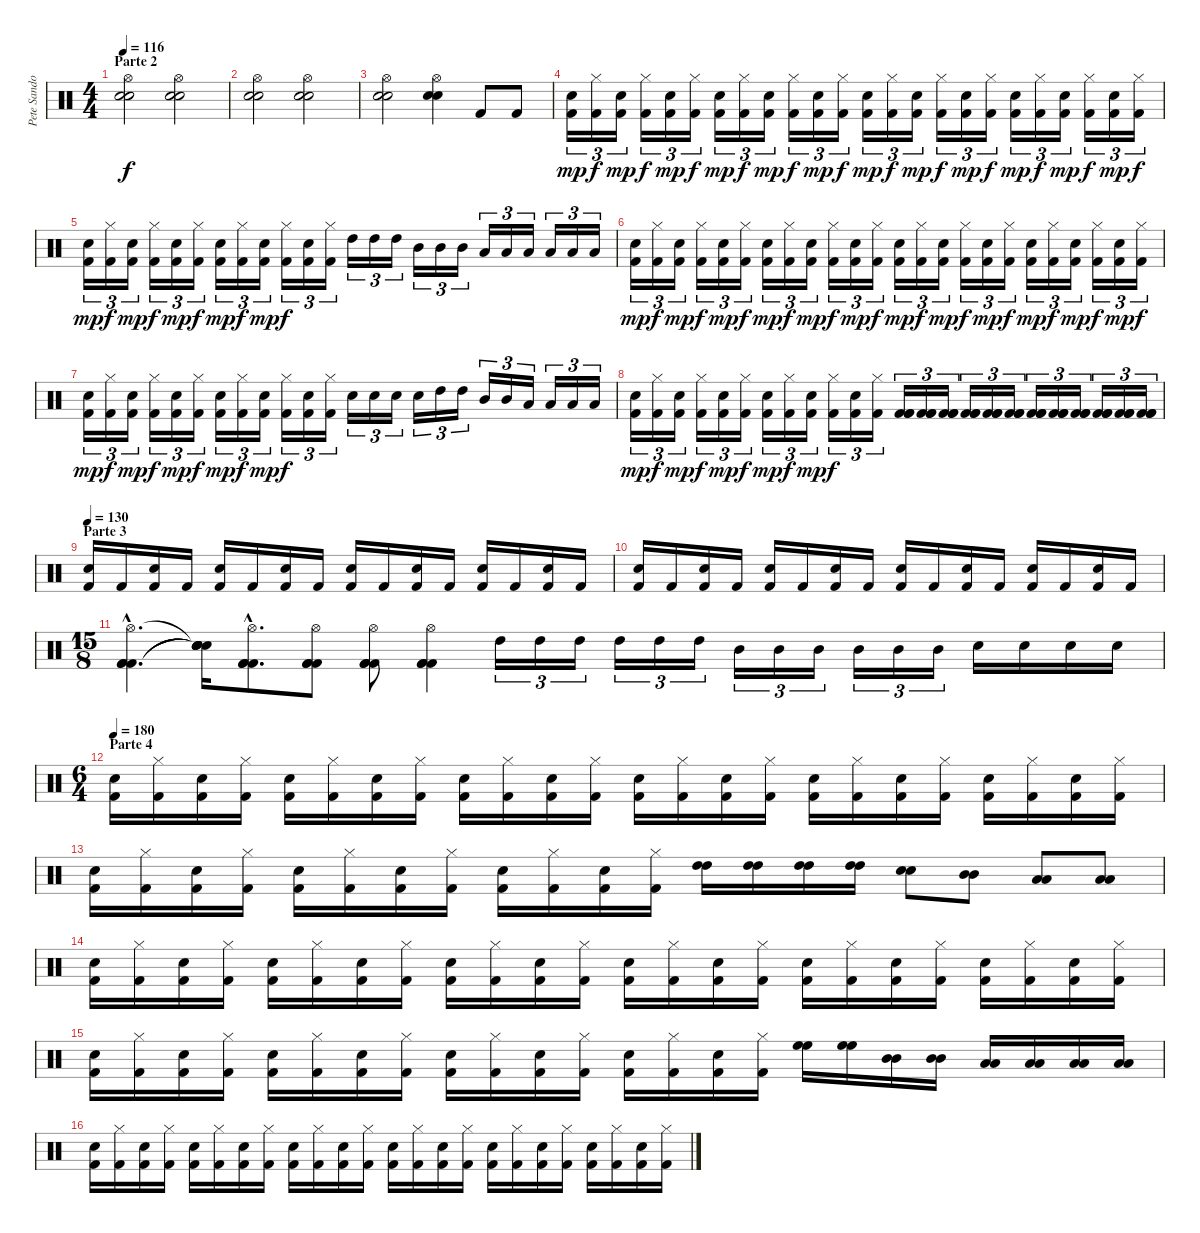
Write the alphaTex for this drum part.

\track ("Pete Sandoval" "Pete Sando") {instrument percussion}
\staff {score}
\articulation defaults
\ts (4 4)
\section ("" "Parte 2")
\tempo 116
\clef neutral
\ks c
("Hi-Hat (open)" "Electric Snare (hit)" "Electric Snare (hit)").2{dy f} ("Hi-Hat (open)" "Electric Snare (hit)" "Electric Snare (hit)").2 |
("Hi-Hat (open)" "Electric Snare (hit)" "Electric Snare (hit)").2 ("Hi-Hat (open)" "Electric Snare (hit)" "Electric Snare (hit)").2 |
("Hi-Hat (open)" "Electric Snare (hit)" "Electric Snare (hit)").2 ("Hi-Hat (open)" "Electric Snare (hit)" "Electric Snare (hit)").4 "Kick (hit) 2".8 "Kick (hit) 2".8 |
("Snare (hit) 2" "Kick (hit) 2").16{tu (3 2) dy mp} ("Hi-Hat (closed)" "Kick (hit) 2").16{tu (3 2) dy f} ("Snare (hit) 2" "Kick (hit) 2").16{tu (3 2) dy mp} ("Hi-Hat (closed)" "Kick (hit) 2").16{tu (3 2) dy f} ("Snare (hit) 2" "Kick (hit) 2").16{tu (3 2) dy mp} ("Hi-Hat (closed)" "Kick (hit) 2").16{tu (3 2) dy f} ("Snare (hit) 2" "Kick (hit) 2").16{tu (3 2) dy mp} ("Hi-Hat (closed)" "Kick (hit) 2").16{tu (3 2) dy f} ("Snare (hit) 2" "Kick (hit) 2").16{tu (3 2) dy mp} ("Hi-Hat (closed)" "Kick (hit) 2").16{tu (3 2) dy f} ("Snare (hit) 2" "Kick (hit) 2").16{tu (3 2) dy mp} ("Hi-Hat (closed)" "Kick (hit) 2").16{tu (3 2) dy f} ("Snare (hit) 2" "Kick (hit) 2").16{tu (3 2) dy mp} ("Hi-Hat (closed)" "Kick (hit) 2").16{tu (3 2) dy f} ("Snare (hit) 2" "Kick (hit) 2").16{tu (3 2) dy mp} ("Hi-Hat (closed)" "Kick (hit) 2").16{tu (3 2) dy f} ("Snare (hit) 2" "Kick (hit) 2").16{tu (3 2) dy mp} ("Hi-Hat (closed)" "Kick (hit) 2").16{tu (3 2) dy f} ("Snare (hit) 2" "Kick (hit) 2").16{tu (3 2) dy mp} ("Hi-Hat (closed)" "Kick (hit) 2").16{tu (3 2) dy f} ("Snare (hit) 2" "Kick (hit) 2").16{tu (3 2) dy mp} ("Hi-Hat (closed)" "Kick (hit) 2").16{tu (3 2) dy f} ("Snare (hit) 2" "Kick (hit) 2").16{tu (3 2) dy mp} ("Hi-Hat (closed)" "Kick (hit) 2").16{tu (3 2) dy f} |
("Snare (hit) 2" "Kick (hit) 2").16{tu (3 2) dy mp} ("Hi-Hat (closed)" "Kick (hit) 2").16{tu (3 2) dy f} ("Snare (hit) 2" "Kick (hit) 2").16{tu (3 2) dy mp} ("Hi-Hat (closed)" "Kick (hit) 2").16{tu (3 2) dy f} ("Snare (hit) 2" "Kick (hit) 2").16{tu (3 2) dy mp} ("Hi-Hat (closed)" "Kick (hit) 2").16{tu (3 2) dy f} ("Snare (hit) 2" "Kick (hit) 2").16{tu (3 2) dy mp} ("Hi-Hat (closed)" "Kick (hit) 2").16{tu (3 2) dy f} ("Snare (hit) 2" "Kick (hit) 2").16{tu (3 2) dy mp} ("Hi-Hat (closed)" "Kick (hit) 2").16{tu (3 2) dy f} ("Snare (hit) 2" "Kick (hit) 2").16{tu (3 2)} ("Hi-Hat (closed)" "Kick (hit) 2").16{tu (3 2)} "High Tom (hit)".16{tu (3 2)} "High Tom (hit)".16{tu (3 2)} "High Tom (hit)".16{tu (3 2)} "Mid Tom (hit)".16{tu (3 2)} "Mid Tom (hit)".16{tu (3 2)} "Mid Tom (hit)".16{tu (3 2)} "Low Tom (hit)".16{tu (3 2)} "Low Tom (hit)".16{tu (3 2)} "Low Tom (hit)".16{tu (3 2)} "Low Floor Tom (hit)".16{tu (3 2)} "Low Floor Tom (hit)".16{tu (3 2)} "Low Floor Tom (hit)".16{tu (3 2)} |
("Snare (hit) 2" "Kick (hit) 2").16{tu (3 2) dy mp} ("Hi-Hat (closed)" "Kick (hit) 2").16{tu (3 2) dy f} ("Snare (hit) 2" "Kick (hit) 2").16{tu (3 2) dy mp} ("Hi-Hat (closed)" "Kick (hit) 2").16{tu (3 2) dy f} ("Snare (hit) 2" "Kick (hit) 2").16{tu (3 2) dy mp} ("Hi-Hat (closed)" "Kick (hit) 2").16{tu (3 2) dy f} ("Snare (hit) 2" "Kick (hit) 2").16{tu (3 2) dy mp} ("Hi-Hat (closed)" "Kick (hit) 2").16{tu (3 2) dy f} ("Snare (hit) 2" "Kick (hit) 2").16{tu (3 2) dy mp} ("Hi-Hat (closed)" "Kick (hit) 2").16{tu (3 2) dy f} ("Snare (hit) 2" "Kick (hit) 2").16{tu (3 2) dy mp} ("Hi-Hat (closed)" "Kick (hit) 2").16{tu (3 2) dy f} ("Snare (hit) 2" "Kick (hit) 2").16{tu (3 2) dy mp} ("Hi-Hat (closed)" "Kick (hit) 2").16{tu (3 2) dy f} ("Snare (hit) 2" "Kick (hit) 2").16{tu (3 2) dy mp} ("Hi-Hat (closed)" "Kick (hit) 2").16{tu (3 2) dy f} ("Snare (hit) 2" "Kick (hit) 2").16{tu (3 2) dy mp} ("Hi-Hat (closed)" "Kick (hit) 2").16{tu (3 2) dy f} ("Snare (hit) 2" "Kick (hit) 2").16{tu (3 2) dy mp} ("Hi-Hat (closed)" "Kick (hit) 2").16{tu (3 2) dy f} ("Snare (hit) 2" "Kick (hit) 2").16{tu (3 2) dy mp} ("Hi-Hat (closed)" "Kick (hit) 2").16{tu (3 2) dy f} ("Snare (hit) 2" "Kick (hit) 2").16{tu (3 2) dy mp} ("Hi-Hat (closed)" "Kick (hit) 2").16{tu (3 2) dy f} |
("Snare (hit) 2" "Kick (hit) 2").16{tu (3 2) dy mp} ("Hi-Hat (closed)" "Kick (hit) 2").16{tu (3 2) dy f} ("Snare (hit) 2" "Kick (hit) 2").16{tu (3 2) dy mp} ("Hi-Hat (closed)" "Kick (hit) 2").16{tu (3 2) dy f} ("Snare (hit) 2" "Kick (hit) 2").16{tu (3 2) dy mp} ("Hi-Hat (closed)" "Kick (hit) 2").16{tu (3 2) dy f} ("Snare (hit) 2" "Kick (hit) 2").16{tu (3 2) dy mp} ("Hi-Hat (closed)" "Kick (hit) 2").16{tu (3 2) dy f} ("Snare (hit) 2" "Kick (hit) 2").16{tu (3 2) dy mp} ("Hi-Hat (closed)" "Kick (hit) 2").16{tu (3 2) dy f} ("Snare (hit) 2" "Kick (hit) 2").16{tu (3 2)} ("Hi-Hat (closed)" "Kick (hit) 2").16{tu (3 2)} "Electric Snare (hit)".16{tu (3 2)} "Electric Snare (hit)".16{tu (3 2)} "Electric Snare (hit)".16{tu (3 2)} "Electric Snare (hit)".16{tu (3 2)} "High Tom (hit)".16{tu (3 2)} "High Tom (hit)".16{tu (3 2)} "Mid Tom (hit)".16{tu (3 2)} "Mid Tom (hit)".16{tu (3 2)} "Low Tom (hit)".16{tu (3 2)} "Low Tom (hit)".16{tu (3 2)} "Low Floor Tom (hit)".16{tu (3 2)} "Low Floor Tom (hit)".16{tu (3 2)} |
("Snare (hit) 2" "Kick (hit) 2").16{tu (3 2) dy mp} ("Hi-Hat (closed)" "Kick (hit) 2").16{tu (3 2) dy f} ("Snare (hit) 2" "Kick (hit) 2").16{tu (3 2) dy mp} ("Hi-Hat (closed)" "Kick (hit) 2").16{tu (3 2) dy f} ("Snare (hit) 2" "Kick (hit) 2").16{tu (3 2) dy mp} ("Hi-Hat (closed)" "Kick (hit) 2").16{tu (3 2) dy f} ("Snare (hit) 2" "Kick (hit) 2").16{tu (3 2) dy mp} ("Hi-Hat (closed)" "Kick (hit) 2").16{tu (3 2) dy f} ("Snare (hit) 2" "Kick (hit) 2").16{tu (3 2) dy mp} ("Hi-Hat (closed)" "Kick (hit) 2").16{tu (3 2) dy f} ("Snare (hit) 2" "Kick (hit) 2").16{tu (3 2)} ("Hi-Hat (closed)" "Kick (hit) 2").16{tu (3 2)} ("Kick (hit) 2" "Kick (hit) 2" "Kick (hit) 2").16{tu (3 2)} ("Kick (hit) 2" "Kick (hit) 2" "Kick (hit) 2").16{tu (3 2)} ("Kick (hit) 2" "Kick (hit) 2" "Kick (hit) 2").16{tu (3 2)} ("Kick (hit) 2" "Kick (hit) 2" "Kick (hit) 2").16{tu (3 2)} ("Kick (hit) 2" "Kick (hit) 2" "Kick (hit) 2").16{tu (3 2)} ("Kick (hit) 2" "Kick (hit) 2" "Kick (hit) 2").16{tu (3 2)} ("Kick (hit) 2" "Kick (hit) 2" "Kick (hit) 2").16{tu (3 2)} ("Kick (hit) 2" "Kick (hit) 2" "Kick (hit) 2").16{tu (3 2)} ("Kick (hit) 2" "Kick (hit) 2" "Kick (hit) 2").16{tu (3 2)} ("Kick (hit) 2" "Kick (hit) 2" "Kick (hit) 2").16{tu (3 2)} ("Kick (hit) 2" "Kick (hit) 2" "Kick (hit) 2").16{tu (3 2)} ("Kick (hit) 2" "Kick (hit) 2" "Kick (hit) 2").16{tu (3 2)} |
\section ("" "Parte 3")
\tempo 130
("Electric Snare (hit)" "Kick (hit) 2").16 "Kick (hit) 2".16 ("Electric Snare (hit)" "Kick (hit) 2").16 "Kick (hit) 2".16 ("Electric Snare (hit)" "Kick (hit) 2").16 "Kick (hit) 2".16 ("Electric Snare (hit)" "Kick (hit) 2").16 "Kick (hit) 2".16 ("Electric Snare (hit)" "Kick (hit) 2").16 "Kick (hit) 2".16 ("Electric Snare (hit)" "Kick (hit) 2").16 "Kick (hit) 2".16 ("Electric Snare (hit)" "Kick (hit) 2").16 "Kick (hit) 2".16 ("Electric Snare (hit)" "Kick (hit) 2").16 "Kick (hit) 2".16 |
("Electric Snare (hit)" "Kick (hit) 2").16 "Kick (hit) 2".16 ("Electric Snare (hit)" "Kick (hit) 2").16 "Kick (hit) 2".16 ("Electric Snare (hit)" "Kick (hit) 2").16 "Kick (hit) 2".16 ("Electric Snare (hit)" "Kick (hit) 2").16 "Kick (hit) 2".16 ("Electric Snare (hit)" "Kick (hit) 2").16 "Kick (hit) 2".16 ("Electric Snare (hit)" "Kick (hit) 2").16 "Kick (hit) 2".16 ("Electric Snare (hit)" "Kick (hit) 2").16 "Kick (hit) 2".16 ("Electric Snare (hit)" "Kick (hit) 2").16 "Kick (hit) 2".16 |
\ts (15 8)
("Hi-Hat (open)"{hac} "Kick (hit) 2"{hac} "Kick (hit) 2"{hac} "Kick (hit) 2"{hac}).4{d} ("Snare (hit)"{t} "Snare (hit)"{t} "Snare (hit)"{t} "Snare (hit)"{t} "Snare (hit)").16 ("Hi-Hat (open)"{hac} "Kick (hit) 2"{hac} "Kick (hit) 2"{hac} "Kick (hit) 2"{hac}).8{d} ("Hi-Hat (open)" "Kick (hit) 2" "Kick (hit) 2" "Kick (hit) 2").8 ("Hi-Hat (open)" "Kick (hit) 2" "Kick (hit) 2" "Kick (hit) 2").8 ("Hi-Hat (open)" "Kick (hit) 2" "Kick (hit) 2" "Kick (hit) 2").4 "High Tom (hit)".16{tu (3 2)} "High Tom (hit)".16{tu (3 2)} "High Tom (hit)".16{tu (3 2)} "High Tom (hit)".16{tu (3 2)} "High Tom (hit)".16{tu (3 2)} "High Tom (hit)".16{tu (3 2)} "Mid Tom (hit)".16{tu (3 2)} "Mid Tom (hit)".16{tu (3 2)} "Mid Tom (hit)".16{tu (3 2)} "Mid Tom (hit)".16{tu (3 2)} "Mid Tom (hit)".16{tu (3 2)} "Mid Tom (hit)".16{tu (3 2)} "Snare (hit) 2".16 "Snare (hit) 2".16 "Snare (hit) 2".16 "Snare (hit) 2".16 |
\ts (6 4)
\section ("" "Parte 4")
\tempo 180
("Snare (hit) 2" "Kick (hit) 2").16 ("Hi-Hat (closed)" "Kick (hit) 2").16 ("Snare (hit) 2" "Kick (hit) 2").16 ("Hi-Hat (closed)" "Kick (hit) 2").16 ("Snare (hit) 2" "Kick (hit) 2").16 ("Hi-Hat (closed)" "Kick (hit) 2").16 ("Snare (hit) 2" "Kick (hit) 2").16 ("Hi-Hat (closed)" "Kick (hit) 2").16 ("Snare (hit) 2" "Kick (hit) 2").16 ("Hi-Hat (closed)" "Kick (hit) 2").16 ("Snare (hit) 2" "Kick (hit) 2").16 ("Hi-Hat (closed)" "Kick (hit) 2").16 ("Snare (hit) 2" "Kick (hit) 2").16 ("Hi-Hat (closed)" "Kick (hit) 2").16 ("Snare (hit) 2" "Kick (hit) 2").16 ("Hi-Hat (closed)" "Kick (hit) 2").16 ("Snare (hit) 2" "Kick (hit) 2").16 ("Hi-Hat (closed)" "Kick (hit) 2").16 ("Snare (hit) 2" "Kick (hit) 2").16 ("Hi-Hat (closed)" "Kick (hit) 2").16 ("Snare (hit) 2" "Kick (hit) 2").16 ("Hi-Hat (closed)" "Kick (hit) 2").16 ("Snare (hit) 2" "Kick (hit) 2").16 ("Hi-Hat (closed)" "Kick (hit) 2").16 |
("Snare (hit) 2" "Kick (hit) 2").16 ("Hi-Hat (closed)" "Kick (hit) 2").16 ("Snare (hit) 2" "Kick (hit) 2").16 ("Hi-Hat (closed)" "Kick (hit) 2").16 ("Snare (hit) 2" "Kick (hit) 2").16 ("Hi-Hat (closed)" "Kick (hit) 2").16 ("Snare (hit) 2" "Kick (hit) 2").16 ("Hi-Hat (closed)" "Kick (hit) 2").16 ("Snare (hit) 2" "Kick (hit) 2").16 ("Hi-Hat (closed)" "Kick (hit) 2").16 ("Snare (hit) 2" "Kick (hit) 2").16 ("Hi-Hat (closed)" "Kick (hit) 2").16 ("High Tom (hit)" "High Tom (hit)").16 ("High Tom (hit)" "High Tom (hit)").16 ("High Tom (hit)" "High Tom (hit)").16 ("High Tom (hit)" "High Tom (hit)").16 ("Electric Snare (hit)" "Electric Snare (hit)").8 ("Mid Tom (hit)" "Mid Tom (hit)").8 ("Low Tom (hit)" "Low Tom (hit)").8 ("Low Floor Tom (hit)" "Low Floor Tom (hit)").8 |
("Snare (hit) 2" "Kick (hit) 2").16 ("Hi-Hat (closed)" "Kick (hit) 2").16 ("Snare (hit) 2" "Kick (hit) 2").16 ("Hi-Hat (closed)" "Kick (hit) 2").16 ("Snare (hit) 2" "Kick (hit) 2").16 ("Hi-Hat (closed)" "Kick (hit) 2").16 ("Snare (hit) 2" "Kick (hit) 2").16 ("Hi-Hat (closed)" "Kick (hit) 2").16 ("Snare (hit) 2" "Kick (hit) 2").16 ("Hi-Hat (closed)" "Kick (hit) 2").16 ("Snare (hit) 2" "Kick (hit) 2").16 ("Hi-Hat (closed)" "Kick (hit) 2").16 ("Snare (hit) 2" "Kick (hit) 2").16 ("Hi-Hat (closed)" "Kick (hit) 2").16 ("Snare (hit) 2" "Kick (hit) 2").16 ("Hi-Hat (closed)" "Kick (hit) 2").16 ("Snare (hit) 2" "Kick (hit) 2").16 ("Hi-Hat (closed)" "Kick (hit) 2").16 ("Snare (hit) 2" "Kick (hit) 2").16 ("Hi-Hat (closed)" "Kick (hit) 2").16 ("Snare (hit) 2" "Kick (hit) 2").16 ("Hi-Hat (closed)" "Kick (hit) 2").16 ("Snare (hit) 2" "Kick (hit) 2").16 ("Hi-Hat (closed)" "Kick (hit) 2").16 |
("Snare (hit) 2" "Kick (hit) 2").16 ("Hi-Hat (closed)" "Kick (hit) 2").16 ("Snare (hit) 2" "Kick (hit) 2").16 ("Hi-Hat (closed)" "Kick (hit) 2").16 ("Snare (hit) 2" "Kick (hit) 2").16 ("Hi-Hat (closed)" "Kick (hit) 2").16 ("Snare (hit) 2" "Kick (hit) 2").16 ("Hi-Hat (closed)" "Kick (hit) 2").16 ("Snare (hit) 2" "Kick (hit) 2").16 ("Hi-Hat (closed)" "Kick (hit) 2").16 ("Snare (hit) 2" "Kick (hit) 2").16 ("Hi-Hat (closed)" "Kick (hit) 2").16 ("Snare (hit) 2" "Kick (hit) 2").16 ("Hi-Hat (closed)" "Kick (hit) 2").16 ("Snare (hit) 2" "Kick (hit) 2").16 ("Hi-Hat (closed)" "Kick (hit) 2").16 ("High Floor Tom (hit)" "High Floor Tom (hit)").16 ("High Floor Tom (hit)" "High Floor Tom (hit)").16 ("Mid Tom (hit)" "Mid Tom (hit)").16 ("Mid Tom (hit)" "Mid Tom (hit)").16 ("Low Tom (hit)" "Low Tom (hit)").16 ("Low Tom (hit)" "Low Tom (hit)").16 ("Low Floor Tom (hit)" "Low Floor Tom (hit)").16 ("Low Floor Tom (hit)" "Low Floor Tom (hit)").16 |
("Snare (hit) 2" "Kick (hit) 2").16 ("Hi-Hat (closed)" "Kick (hit) 2").16 ("Snare (hit) 2" "Kick (hit) 2").16 ("Hi-Hat (closed)" "Kick (hit) 2").16 ("Snare (hit) 2" "Kick (hit) 2").16 ("Hi-Hat (closed)" "Kick (hit) 2").16 ("Snare (hit) 2" "Kick (hit) 2").16 ("Hi-Hat (closed)" "Kick (hit) 2").16 ("Snare (hit) 2" "Kick (hit) 2").16 ("Hi-Hat (closed)" "Kick (hit) 2").16 ("Snare (hit) 2" "Kick (hit) 2").16 ("Hi-Hat (closed)" "Kick (hit) 2").16 ("Snare (hit) 2" "Kick (hit) 2").16 ("Hi-Hat (closed)" "Kick (hit) 2").16 ("Snare (hit) 2" "Kick (hit) 2").16 ("Hi-Hat (closed)" "Kick (hit) 2").16 ("Snare (hit) 2" "Kick (hit) 2").16 ("Hi-Hat (closed)" "Kick (hit) 2").16 ("Snare (hit) 2" "Kick (hit) 2").16 ("Hi-Hat (closed)" "Kick (hit) 2").16 ("Snare (hit) 2" "Kick (hit) 2").16 ("Hi-Hat (closed)" "Kick (hit) 2").16 ("Snare (hit) 2" "Kick (hit) 2").16 ("Hi-Hat (closed)" "Kick (hit) 2").16
